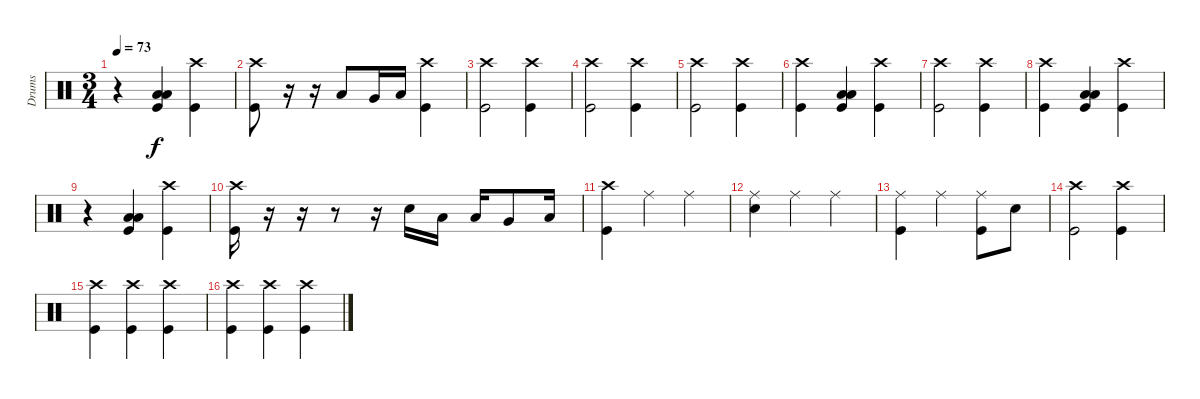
\track ("Drums" "Drums") {instrument percussion}
\staff {score}
\articulation defaults
\ts (3 4)
\tempo 73
\clef neutral
\ks c
r.4{dy f} ("Low Tom (hit)" "Low Floor Tom (hit)" "Kick (hit)").4 ("Crash high (hit)" "Kick (hit)").4 |
("Crash high (hit)" "Kick (hit)").8 r.16 r.16 "Low Tom (hit)".8 "Very Low Tom (hit)".16 "Low Floor Tom (hit)".16 ("Crash high (hit)" "Kick (hit)").4 |
("Crash high (hit)" "Kick (hit)").2 ("Crash high (hit)" "Kick (hit)").4 |
("Crash high (hit)" "Kick (hit)").2 ("Crash high (hit)" "Kick (hit)").4 |
("Crash high (hit)" "Kick (hit)").2 ("Crash high (hit)" "Kick (hit)").4 |
("Crash high (hit)" "Kick (hit)").4 ("Low Tom (hit)" "Low Floor Tom (hit)" "Kick (hit)").4 ("Crash high (hit)" "Kick (hit)").4 |
("Crash high (hit)" "Kick (hit)").2 ("Crash high (hit)" "Kick (hit)").4 |
("Crash high (hit)" "Kick (hit)").4 ("Low Tom (hit)" "Low Floor Tom (hit)" "Kick (hit)").4 ("Crash high (hit)" "Kick (hit)").4 |
r.4 ("Low Tom (hit)" "Low Floor Tom (hit)" "Kick (hit)").4 ("Crash high (hit)" "Kick (hit)").4 |
("Crash high (hit)" "Kick (hit)").16 r.16 r.16 r.8 r.16 "Snare (hit) 2".16 "Low Tom (hit)".16 "Low Tom (hit)".16 "Very Low Tom (hit)".8 "Low Floor Tom (hit)".16 |
("Crash high (hit)" "Kick (hit)").4 "Ride (middle)".4 "Ride (middle)".4 |
("Ride (middle)" "Snare (hit) 2").4 "Ride (middle)".4 "Ride (middle)".4 |
("Ride (middle)" "Kick (hit)").4 "Ride (middle)".4 ("Ride (middle)" "Kick (hit)").8 "Snare (hit) 2".8 |
("Crash high (hit)" "Kick (hit)").2 ("Crash high (hit)" "Kick (hit)").4 |
("Crash high (hit)" "Kick (hit)").4 ("Crash high (hit)" "Kick (hit)").4 ("Crash high (hit)" "Kick (hit)").4 |
("Crash high (hit)" "Kick (hit)").4 ("Crash high (hit)" "Kick (hit)").4 ("Crash high (hit)" "Kick (hit)").4
